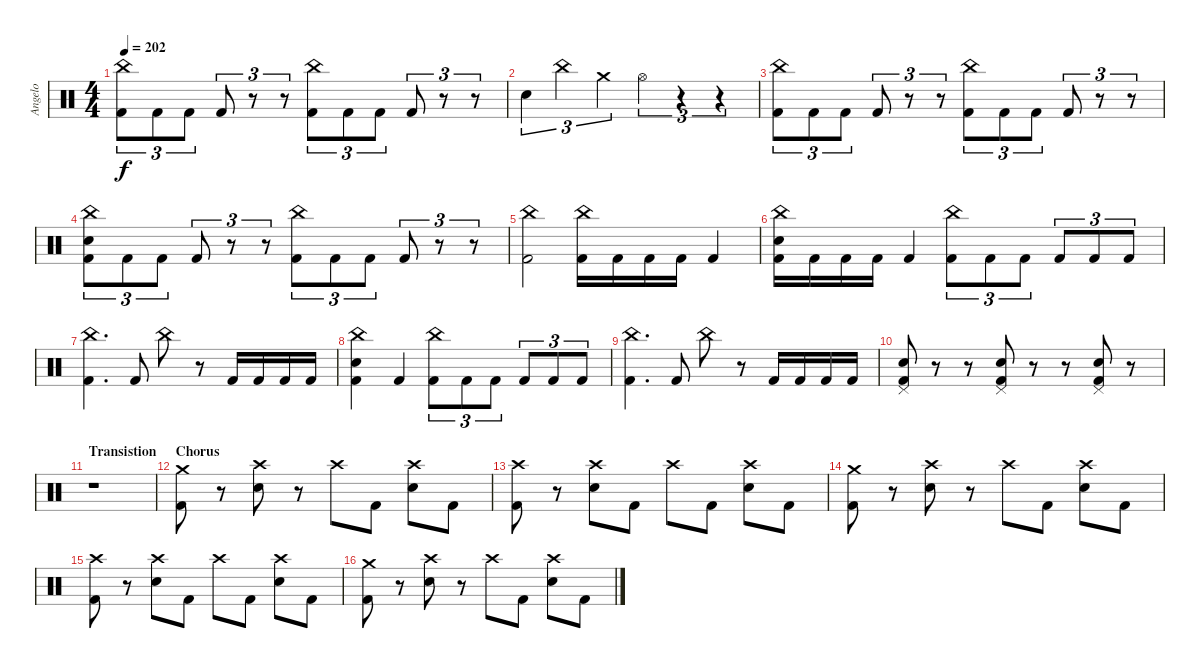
\track ("Angelo" "Angelo") {instrument percussion}
\staff {score}
\articulation defaults
\ts (4 4)
\tempo 202
\clef neutral
\ks c
("China (hit)" "Kick (hit) 2").8{tu (3 2) dy f} "Kick (hit) 2".8{tu (3 2)} "Kick (hit) 2".8{tu (3 2)} "Kick (hit) 2".8{tu (3 2)} r.8{tu (3 2)} r.8{tu (3 2)} ("China (hit)" "Kick (hit) 2").8{tu (3 2)} "Kick (hit) 2".8{tu (3 2)} "Kick (hit) 2".8{tu (3 2)} "Kick (hit) 2".8{tu (3 2)} r.8{tu (3 2)} r.8{tu (3 2)} |
"Electric Snare (hit)".4{tu (3 2)} "China (hit)".4{tu (3 2)} "Crash medium (hit)".4{tu (3 2)} "Hi-Hat (open)".4{tu (3 2)} r.4{tu (3 2)} r.4{tu (3 2)} |
("China (hit)" "Kick (hit) 2").8{tu (3 2)} "Kick (hit) 2".8{tu (3 2)} "Kick (hit) 2".8{tu (3 2)} "Kick (hit) 2".8{tu (3 2)} r.8{tu (3 2)} r.8{tu (3 2)} ("China (hit)" "Kick (hit) 2").8{tu (3 2)} "Kick (hit) 2".8{tu (3 2)} "Kick (hit) 2".8{tu (3 2)} "Kick (hit) 2".8{tu (3 2)} r.8{tu (3 2)} r.8{tu (3 2)} |
("China (hit)" "Electric Snare (hit)" "Kick (hit) 2").8{tu (3 2)} "Kick (hit) 2".8{tu (3 2)} "Kick (hit) 2".8{tu (3 2)} "Kick (hit) 2".8{tu (3 2)} r.8{tu (3 2)} r.8{tu (3 2)} ("China (hit)" "Kick (hit) 2").8{tu (3 2)} "Kick (hit) 2".8{tu (3 2)} "Kick (hit) 2".8{tu (3 2)} "Kick (hit) 2".8{tu (3 2)} r.8{tu (3 2)} r.8{tu (3 2)} |
("China (hit)" "Kick (hit) 2").2 ("China (hit)" "Kick (hit) 2").16 "Kick (hit) 2".16 "Kick (hit) 2".16 "Kick (hit) 2".16 "Kick (hit) 2".4 |
("China (hit)" "Electric Snare (hit)" "Kick (hit) 2").16 "Kick (hit) 2".16 "Kick (hit) 2".16 "Kick (hit) 2".16 "Kick (hit) 2".4 ("China (hit)" "Kick (hit) 2").8{tu (3 2)} "Kick (hit) 2".8{tu (3 2)} "Kick (hit) 2".8{tu (3 2)} "Kick (hit) 2".8{tu (3 2)} "Kick (hit) 2".8{tu (3 2)} "Kick (hit) 2".8{tu (3 2)} |
("China (hit)" "Kick (hit) 2").4{d} "Kick (hit) 2".8 "China (hit)".8 r.8 "Kick (hit) 2".16 "Kick (hit) 2".16 "Kick (hit) 2".16 "Kick (hit) 2".16 |
("China (hit)" "Electric Snare (hit)" "Kick (hit) 2").4 "Kick (hit) 2".4 ("China (hit)" "Kick (hit) 2").8{tu (3 2)} "Kick (hit) 2".8{tu (3 2)} "Kick (hit) 2".8{tu (3 2)} "Kick (hit) 2".8{tu (3 2)} "Kick (hit) 2".8{tu (3 2)} "Kick (hit) 2".8{tu (3 2)} |
("China (hit)" "Kick (hit) 2").4{d} "Kick (hit) 2".8 "China (hit)".8 r.8 "Kick (hit) 2".16 "Kick (hit) 2".16 "Kick (hit) 2".16 "Kick (hit) 2".16 |
("Pedal Hi-Hat (hit)" "Electric Snare (hit)" "Kick (hit) 2").8 r.8 r.8 ("Pedal Hi-Hat (hit)" "Electric Snare (hit)" "Kick (hit) 2").8 r.8 r.8 ("Pedal Hi-Hat (hit)" "Electric Snare (hit)" "Kick (hit) 2").8 r.8 |
\section ("" "Transistion")
r.1 |
\section ("" "Chorus")
("Crash medium (hit)" "Kick (hit) 2").8 r.8 ("Crash high (hit)" "Electric Snare (hit)").8 r.8 "Crash high (hit)".8 "Kick (hit) 2".8 ("Crash high (hit)" "Electric Snare (hit)").8 "Kick (hit) 2".8 |
("Crash high (hit)" "Kick (hit) 2").8 r.8 ("Crash high (hit)" "Electric Snare (hit)").8 "Kick (hit) 2".8 "Crash high (hit)".8 "Kick (hit) 2".8 ("Crash high (hit)" "Electric Snare (hit)").8 "Kick (hit) 2".8 |
("Crash medium (hit)" "Kick (hit) 2").8 r.8 ("Crash high (hit)" "Electric Snare (hit)").8 r.8 "Crash high (hit)".8 "Kick (hit) 2".8 ("Crash high (hit)" "Electric Snare (hit)").8 "Kick (hit) 2".8 |
("Crash high (hit)" "Kick (hit) 2").8 r.8 ("Crash high (hit)" "Electric Snare (hit)").8 "Kick (hit) 2".8 "Crash high (hit)".8 "Kick (hit) 2".8 ("Crash high (hit)" "Electric Snare (hit)").8 "Kick (hit) 2".8 |
("Crash medium (hit)" "Kick (hit) 2").8 r.8 ("Crash high (hit)" "Electric Snare (hit)").8 r.8 "Crash high (hit)".8 "Kick (hit) 2".8 ("Crash high (hit)" "Electric Snare (hit)").8 "Kick (hit) 2".8
